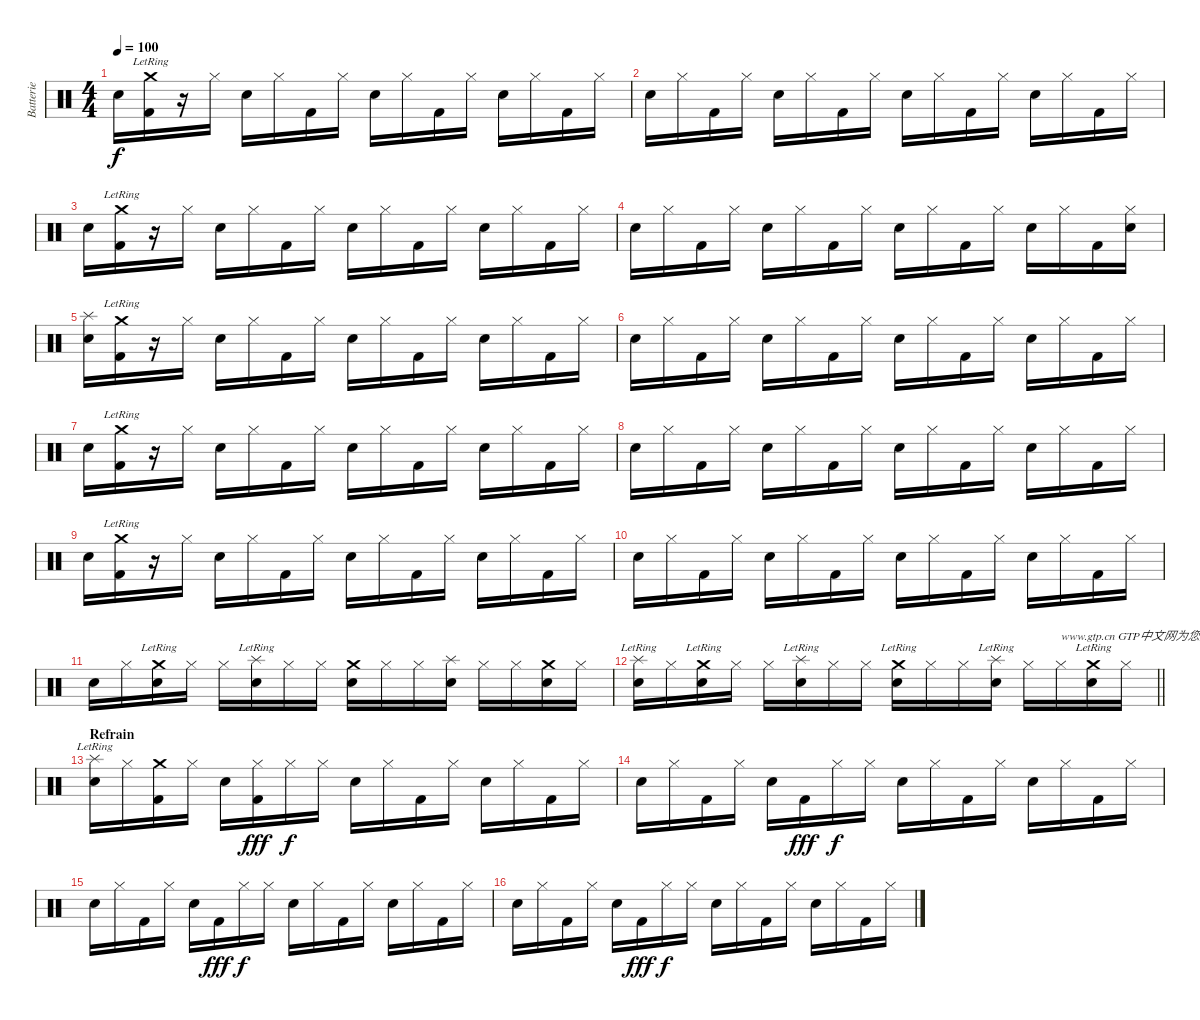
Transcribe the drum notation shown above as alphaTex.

\track ("Batterie" "Batterie") {instrument percussion}
\staff {score}
\articulation defaults
\ts (4 4)
\tempo 100
\clef neutral
\ks c "Electric Snare (hit)".16{dy f}
("Crash medium (hit)"{lr} "Kick (hit) 2").16 r.16 "Hi-Hat (closed)".16 "Electric Snare (hit)".16 "Hi-Hat (closed)".16 "Kick (hit) 2".16 "Hi-Hat (closed)".16 "Electric Snare (hit)".16 "Hi-Hat (closed)".16 "Kick (hit) 2".16 "Hi-Hat (closed)".16 "Electric Snare (hit)".16 "Hi-Hat (closed)".16 "Kick (hit) 2".16 "Hi-Hat (closed)".16 |
"Electric Snare (hit)".16 "Hi-Hat (closed)".16 "Kick (hit) 2".16 "Hi-Hat (closed)".16 "Electric Snare (hit)".16 "Hi-Hat (closed)".16 "Kick (hit) 2".16 "Hi-Hat (closed)".16 "Electric Snare (hit)".16 "Hi-Hat (closed)".16 "Kick (hit) 2".16 "Hi-Hat (closed)".16 "Electric Snare (hit)".16 "Hi-Hat (closed)".16 "Kick (hit) 2".16 "Hi-Hat (closed)".16 |
"Electric Snare (hit)".16 ("Crash medium (hit)"{lr} "Kick (hit) 2").16 r.16 "Hi-Hat (closed)".16 "Electric Snare (hit)".16 "Hi-Hat (closed)".16 "Kick (hit) 2".16 "Hi-Hat (closed)".16 "Electric Snare (hit)".16 "Hi-Hat (closed)".16 "Kick (hit) 2".16 "Hi-Hat (closed)".16 "Electric Snare (hit)".16 "Hi-Hat (closed)".16 "Kick (hit) 2".16 "Hi-Hat (closed)".16 |
"Electric Snare (hit)".16 "Hi-Hat (closed)".16 "Kick (hit) 2".16 "Hi-Hat (closed)".16 "Electric Snare (hit)".16 "Hi-Hat (closed)".16 "Kick (hit) 2".16 "Hi-Hat (closed)".16 "Electric Snare (hit)".16 "Hi-Hat (closed)".16 "Kick (hit) 2".16 "Hi-Hat (closed)".16 "Electric Snare (hit)".16 "Hi-Hat (closed)".16 "Kick (hit) 2".16 ("Electric Snare (hit)" "Hi-Hat (closed)").16 |
("Splash (hit)" "Electric Snare (hit)").16 ("Crash medium (hit)"{lr} "Kick (hit) 2").16 r.16 "Hi-Hat (closed)".16 "Electric Snare (hit)".16 "Hi-Hat (closed)".16 "Kick (hit) 2".16 "Hi-Hat (closed)".16 "Electric Snare (hit)".16 "Hi-Hat (closed)".16 "Kick (hit) 2".16 "Hi-Hat (closed)".16 "Electric Snare (hit)".16 "Hi-Hat (closed)".16 "Kick (hit) 2".16 "Hi-Hat (closed)".16 |
"Electric Snare (hit)".16 "Hi-Hat (closed)".16 "Kick (hit) 2".16 "Hi-Hat (closed)".16 "Electric Snare (hit)".16 "Hi-Hat (closed)".16 "Kick (hit) 2".16 "Hi-Hat (closed)".16 "Electric Snare (hit)".16 "Hi-Hat (closed)".16 "Kick (hit) 2".16 "Hi-Hat (closed)".16 "Electric Snare (hit)".16 "Hi-Hat (closed)".16 "Kick (hit) 2".16 "Hi-Hat (closed)".16 |
"Electric Snare (hit)".16 ("Crash medium (hit)"{lr} "Kick (hit) 2").16 r.16 "Hi-Hat (closed)".16 "Electric Snare (hit)".16 "Hi-Hat (closed)".16 "Kick (hit) 2".16 "Hi-Hat (closed)".16 "Electric Snare (hit)".16 "Hi-Hat (closed)".16 "Kick (hit) 2".16 "Hi-Hat (closed)".16 "Electric Snare (hit)".16 "Hi-Hat (closed)".16 "Kick (hit) 2".16 "Hi-Hat (closed)".16 |
"Electric Snare (hit)".16 "Hi-Hat (closed)".16 "Kick (hit) 2".16 "Hi-Hat (closed)".16 "Electric Snare (hit)".16 "Hi-Hat (closed)".16 "Kick (hit) 2".16 "Hi-Hat (closed)".16 "Electric Snare (hit)".16 "Hi-Hat (closed)".16 "Kick (hit) 2".16 "Hi-Hat (closed)".16 "Electric Snare (hit)".16 "Hi-Hat (closed)".16 "Kick (hit) 2".16 "Hi-Hat (closed)".16 |
"Electric Snare (hit)".16 ("Crash medium (hit)"{lr} "Kick (hit) 2").16 r.16 "Hi-Hat (closed)".16 "Electric Snare (hit)".16 "Hi-Hat (closed)".16 "Kick (hit) 2".16 "Hi-Hat (closed)".16 "Electric Snare (hit)".16 "Hi-Hat (closed)".16 "Kick (hit) 2".16 "Hi-Hat (closed)".16 "Electric Snare (hit)".16 "Hi-Hat (closed)".16 "Kick (hit) 2".16 "Hi-Hat (closed)".16 |
"Electric Snare (hit)".16 "Hi-Hat (closed)".16 "Kick (hit) 2".16 "Hi-Hat (closed)".16 "Electric Snare (hit)".16 "Hi-Hat (closed)".16 "Kick (hit) 2".16 "Hi-Hat (closed)".16 "Electric Snare (hit)".16 "Hi-Hat (closed)".16 "Kick (hit) 2".16 "Hi-Hat (closed)".16 "Electric Snare (hit)".16 "Hi-Hat (closed)".16 "Kick (hit) 2".16 "Hi-Hat (closed)".16 |
"Electric Snare (hit)".16 "Hi-Hat (closed)".16 ("Crash medium (hit)"{lr} "Electric Snare (hit)").16 "Hi-Hat (closed)".16 "Hi-Hat (closed)".16 ("Splash (hit)"{lr} "Electric Snare (hit)").16 "Hi-Hat (closed)".16 "Hi-Hat (closed)".16 ("Crash medium (hit)" "Electric Snare (hit)").16 "Hi-Hat (closed)".16 "Hi-Hat (closed)".16 ("Splash (hit)" "Electric Snare (hit)").16 "Hi-Hat (closed)".16 "Hi-Hat (closed)".16 ("Crash medium (hit)" "Electric Snare (hit)").16 "Hi-Hat (closed)".16 |
\barLineRight lightlight
("Splash (hit)"{lr} "Electric Snare (hit)").16 "Hi-Hat (closed)".16 ("Crash medium (hit)"{lr} "Electric Snare (hit)").16 "Hi-Hat (closed)".16 "Hi-Hat (closed)".16 ("Splash (hit)"{lr} "Electric Snare (hit)").16 "Hi-Hat (closed)".16 "Hi-Hat (closed)".16 ("Crash medium (hit)"{lr} "Electric Snare (hit)").16 "Hi-Hat (closed)".16 "Hi-Hat (closed)".16 ("Splash (hit)"{lr} "Electric Snare (hit)").16 "Hi-Hat (closed)".16 "Hi-Hat (closed)".16{txt "www.gtp.cn GTP中文网为您提供优秀的谱子"} ("Crash medium (hit)"{lr} "Electric Snare (hit)").16 "Hi-Hat (closed)".16 |
\section ("" "Refrain")
("Splash (hit)"{lr} "Electric Snare (hit)").16 "Hi-Hat (closed)".16 ("Crash medium (hit)" "Kick (hit) 2").16 "Hi-Hat (closed)".16 "Electric Snare (hit)".16 ("Kick (hit) 2" "Hi-Hat (closed)").16{dy fff} "Hi-Hat (closed)".16{dy f} "Hi-Hat (closed)".16 "Electric Snare (hit)".16 "Hi-Hat (closed)".16 "Kick (hit) 2".16 "Hi-Hat (closed)".16 "Electric Snare (hit)".16 "Hi-Hat (closed)".16 "Kick (hit) 2".16 "Hi-Hat (closed)".16 |
"Electric Snare (hit)".16 "Hi-Hat (closed)".16 "Kick (hit) 2".16 "Hi-Hat (closed)".16 "Electric Snare (hit)".16 "Kick (hit) 2".16{dy fff} "Hi-Hat (closed)".16{dy f} "Hi-Hat (closed)".16 "Electric Snare (hit)".16 "Hi-Hat (closed)".16 "Kick (hit) 2".16 "Hi-Hat (closed)".16 "Electric Snare (hit)".16 "Hi-Hat (closed)".16 "Kick (hit) 2".16 "Hi-Hat (closed)".16 |
"Electric Snare (hit)".16 "Hi-Hat (closed)".16 "Kick (hit) 2".16 "Hi-Hat (closed)".16 "Electric Snare (hit)".16 "Kick (hit) 2".16{dy fff} "Hi-Hat (closed)".16{dy f} "Hi-Hat (closed)".16 "Electric Snare (hit)".16 "Hi-Hat (closed)".16 "Kick (hit) 2".16 "Hi-Hat (closed)".16 "Electric Snare (hit)".16 "Hi-Hat (closed)".16 "Kick (hit) 2".16 "Hi-Hat (closed)".16 |
"Electric Snare (hit)".16 "Hi-Hat (closed)".16 "Kick (hit) 2".16 "Hi-Hat (closed)".16 "Electric Snare (hit)".16 "Kick (hit) 2".16{dy fff} "Hi-Hat (closed)".16{dy f} "Hi-Hat (closed)".16 "Electric Snare (hit)".16 "Hi-Hat (closed)".16 "Kick (hit) 2".16 "Hi-Hat (closed)".16 "Electric Snare (hit)".16 "Hi-Hat (closed)".16 "Kick (hit) 2".16 "Hi-Hat (closed)".16
